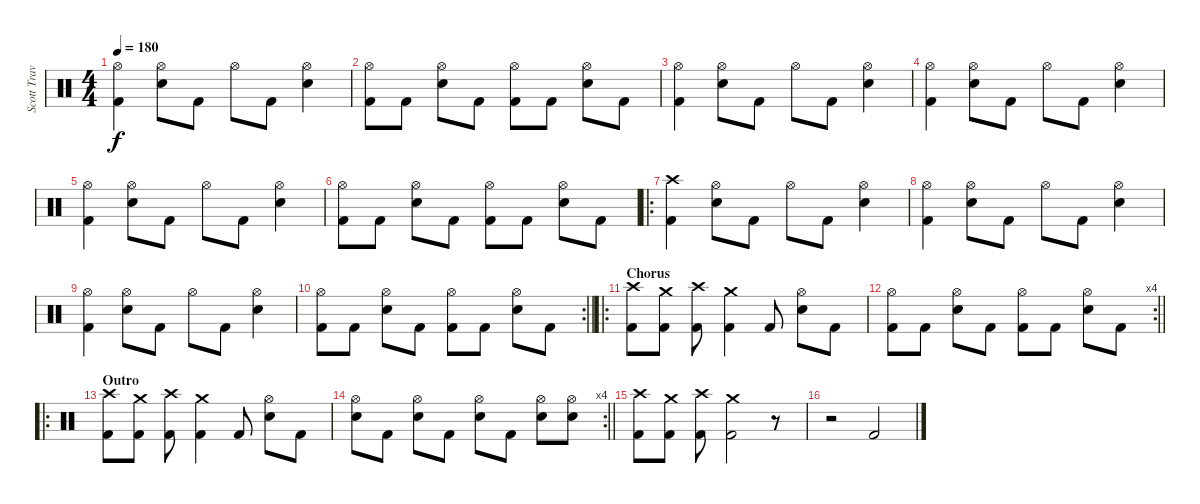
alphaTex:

\track ("Scott Travis" "Scott Trav") {instrument percussion}
\staff {score}
\articulation defaults
\ts (4 4)
\tempo 180
\clef neutral
\ks c
("Hi-Hat (open)" "Kick (hit) 2").4{dy f} ("Hi-Hat (open)" "Snare (hit) 2").8 "Kick (hit) 2".8 "Hi-Hat (open)".8 "Kick (hit) 2".8 ("Hi-Hat (open)" "Snare (hit) 2").4 |
("Hi-Hat (open)" "Kick (hit) 2").8 "Kick (hit) 2".8 ("Hi-Hat (open)" "Snare (hit) 2").8 "Kick (hit) 2".8 ("Hi-Hat (open)" "Kick (hit) 2").8 "Kick (hit) 2".8 ("Hi-Hat (open)" "Snare (hit) 2").8 "Kick (hit) 2".8 |
("Hi-Hat (open)" "Kick (hit) 2").4 ("Hi-Hat (open)" "Snare (hit) 2").8 "Kick (hit) 2".8 "Hi-Hat (open)".8 "Kick (hit) 2".8 ("Hi-Hat (open)" "Snare (hit) 2").4 |
("Hi-Hat (open)" "Kick (hit) 2").4 ("Hi-Hat (open)" "Snare (hit) 2").8 "Kick (hit) 2".8 "Hi-Hat (open)".8 "Kick (hit) 2".8 ("Hi-Hat (open)" "Snare (hit) 2").4 |
("Hi-Hat (open)" "Kick (hit) 2").4 ("Hi-Hat (open)" "Snare (hit) 2").8 "Kick (hit) 2".8 "Hi-Hat (open)".8 "Kick (hit) 2".8 ("Hi-Hat (open)" "Snare (hit) 2").4 |
("Hi-Hat (open)" "Kick (hit) 2").8 "Kick (hit) 2".8 ("Hi-Hat (open)" "Snare (hit) 2").8 "Kick (hit) 2".8 ("Hi-Hat (open)" "Kick (hit) 2").8 "Kick (hit) 2".8 ("Hi-Hat (open)" "Snare (hit) 2").8 "Kick (hit) 2".8 |
\ro
("Crash high (hit)" "Kick (hit) 2").4 ("Hi-Hat (open)" "Snare (hit) 2").8 "Kick (hit) 2".8 "Hi-Hat (open)".8 "Kick (hit) 2".8 ("Hi-Hat (open)" "Snare (hit) 2").4 |
("Hi-Hat (open)" "Kick (hit) 2").4 ("Hi-Hat (open)" "Snare (hit) 2").8 "Kick (hit) 2".8 "Hi-Hat (open)".8 "Kick (hit) 2".8 ("Hi-Hat (open)" "Snare (hit) 2").4 |
("Hi-Hat (open)" "Kick (hit) 2").4 ("Hi-Hat (open)" "Snare (hit) 2").8 "Kick (hit) 2".8 "Hi-Hat (open)".8 "Kick (hit) 2".8 ("Hi-Hat (open)" "Snare (hit) 2").4 |
\rc 2
\barLineRight lightlight
("Hi-Hat (open)" "Kick (hit) 2").8 "Kick (hit) 2".8 ("Hi-Hat (open)" "Snare (hit) 2").8 "Kick (hit) 2".8 ("Hi-Hat (open)" "Kick (hit) 2").8 "Kick (hit) 2".8 ("Hi-Hat (open)" "Snare (hit) 2").8 "Kick (hit) 2".8 |
\ro
\section ("" "Chorus")
("Crash high (hit)" "Kick (hit) 2").8 ("Crash medium (hit)" "Kick (hit) 2").8 ("Crash high (hit)" "Kick (hit) 2").8 ("Crash medium (hit)" "Kick (hit) 2").4 "Kick (hit) 2".8 ("Hi-Hat (open)" "Snare (hit) 2").8 "Kick (hit) 2".8 |
\rc 4
\barLineRight lightlight
("Hi-Hat (open)" "Kick (hit) 2").8 "Kick (hit) 2".8 ("Hi-Hat (open)" "Snare (hit) 2").8 "Kick (hit) 2".8 ("Hi-Hat (open)" "Kick (hit) 2").8 "Kick (hit) 2".8 ("Hi-Hat (open)" "Snare (hit) 2").8 "Kick (hit) 2".8 |
\ro
\section ("" "Outro")
("Crash high (hit)" "Kick (hit) 2").8 ("Crash medium (hit)" "Kick (hit) 2").8 ("Crash high (hit)" "Kick (hit) 2").8 ("Crash medium (hit)" "Kick (hit) 2").4 "Kick (hit) 2".8 ("Hi-Hat (open)" "Snare (hit) 2").8 "Kick (hit) 2".8 |
\rc 4
\barLineRight lightlight
("Hi-Hat (open)" "Snare (hit) 2").8 "Kick (hit) 2".8 ("Hi-Hat (open)" "Snare (hit) 2").8 "Kick (hit) 2".8 ("Hi-Hat (open)" "Snare (hit) 2").8 "Kick (hit) 2".8 ("Hi-Hat (open)" "Snare (hit) 2").8 ("Hi-Hat (open)" "Snare (hit) 2").8 |
\section ("" "")
("Crash high (hit)" "Kick (hit) 2").8 ("Crash medium (hit)" "Kick (hit) 2").8 ("Crash high (hit)" "Kick (hit) 2").8 ("Crash medium (hit)" "Kick (hit) 2").2 r.8 |
r.2 "Kick (hit) 2".2
